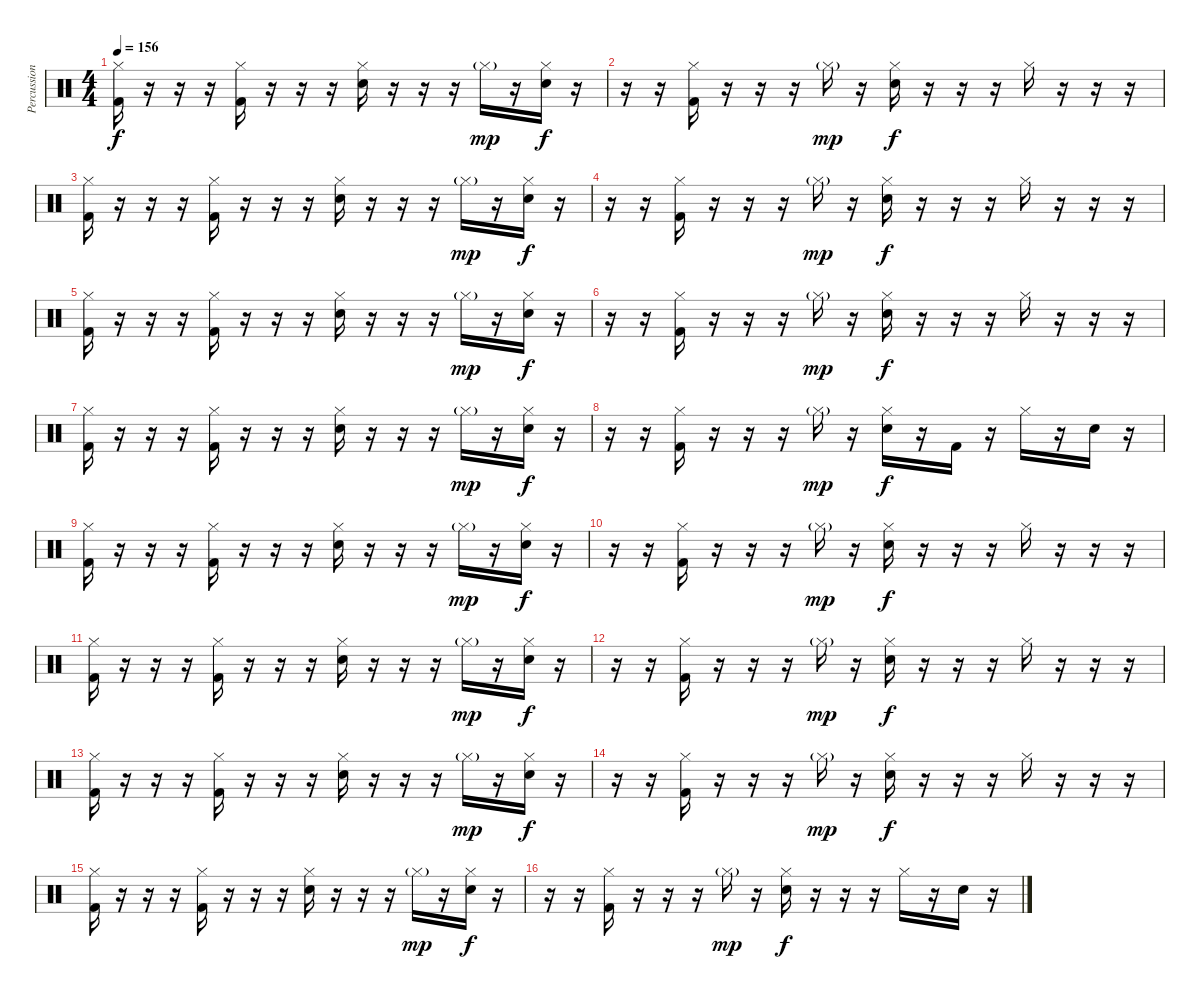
\track ("Percussion" "Percussion") {instrument percussion}
\staff {score}
\articulation defaults
\ts (4 4)
\tempo 156
\clef neutral
\ks c
("Hi-Hat (closed)" "Kick (hit) 2").16{dy f} r.16 r.16 r.16 ("Hi-Hat (closed)" "Kick (hit) 2").16 r.16 r.16 r.16 ("Hi-Hat (closed)" "Electric Snare (hit)").16 r.16 r.16 r.16 "Hi-Hat (closed)"{g}.16{dy mp} r.16 ("Hi-Hat (closed)" "Electric Snare (hit)").16{dy f} r.16 |
r.16 r.16 ("Hi-Hat (closed)" "Kick (hit) 2").16 r.16 r.16 r.16 "Hi-Hat (closed)"{g}.16{dy mp} r.16 ("Hi-Hat (closed)" "Electric Snare (hit)").16{dy f} r.16 r.16 r.16 "Hi-Hat (closed)".16 r.16 r.16 r.16 |
("Hi-Hat (closed)" "Kick (hit) 2").16 r.16 r.16 r.16 ("Hi-Hat (closed)" "Kick (hit) 2").16 r.16 r.16 r.16 ("Hi-Hat (closed)" "Electric Snare (hit)").16 r.16 r.16 r.16 "Hi-Hat (closed)"{g}.16{dy mp} r.16 ("Hi-Hat (closed)" "Electric Snare (hit)").16{dy f} r.16 |
r.16 r.16 ("Hi-Hat (closed)" "Kick (hit) 2").16 r.16 r.16 r.16 "Hi-Hat (closed)"{g}.16{dy mp} r.16 ("Hi-Hat (closed)" "Electric Snare (hit)").16{dy f} r.16 r.16 r.16 "Hi-Hat (closed)".16 r.16 r.16 r.16 |
("Hi-Hat (closed)" "Kick (hit) 2").16 r.16 r.16 r.16 ("Hi-Hat (closed)" "Kick (hit) 2").16 r.16 r.16 r.16 ("Hi-Hat (closed)" "Electric Snare (hit)").16 r.16 r.16 r.16 "Hi-Hat (closed)"{g}.16{dy mp} r.16 ("Hi-Hat (closed)" "Electric Snare (hit)").16{dy f} r.16 |
r.16 r.16 ("Hi-Hat (closed)" "Kick (hit) 2").16 r.16 r.16 r.16 "Hi-Hat (closed)"{g}.16{dy mp} r.16 ("Hi-Hat (closed)" "Electric Snare (hit)").16{dy f} r.16 r.16 r.16 "Hi-Hat (closed)".16 r.16 r.16 r.16 |
("Hi-Hat (closed)" "Kick (hit) 2").16 r.16 r.16 r.16 ("Hi-Hat (closed)" "Kick (hit) 2").16 r.16 r.16 r.16 ("Hi-Hat (closed)" "Electric Snare (hit)").16 r.16 r.16 r.16 "Hi-Hat (closed)"{g}.16{dy mp} r.16 ("Hi-Hat (closed)" "Electric Snare (hit)").16{dy f} r.16 |
r.16 r.16 ("Hi-Hat (closed)" "Kick (hit) 2").16 r.16 r.16 r.16 "Hi-Hat (closed)"{g}.16{dy mp} r.16 ("Hi-Hat (closed)" "Electric Snare (hit)").16{dy f} r.16 "Kick (hit) 2".16 r.16 "Hi-Hat (closed)".16 r.16 "Electric Snare (hit)".16 r.16 |
("Hi-Hat (closed)" "Kick (hit) 2").16 r.16 r.16 r.16 ("Hi-Hat (closed)" "Kick (hit) 2").16 r.16 r.16 r.16 ("Hi-Hat (closed)" "Electric Snare (hit)").16 r.16 r.16 r.16 "Hi-Hat (closed)"{g}.16{dy mp} r.16 ("Hi-Hat (closed)" "Electric Snare (hit)").16{dy f} r.16 |
r.16 r.16 ("Hi-Hat (closed)" "Kick (hit) 2").16 r.16 r.16 r.16 "Hi-Hat (closed)"{g}.16{dy mp} r.16 ("Hi-Hat (closed)" "Electric Snare (hit)").16{dy f} r.16 r.16 r.16 "Hi-Hat (closed)".16 r.16 r.16 r.16 |
("Hi-Hat (closed)" "Kick (hit) 2").16 r.16 r.16 r.16 ("Hi-Hat (closed)" "Kick (hit) 2").16 r.16 r.16 r.16 ("Hi-Hat (closed)" "Electric Snare (hit)").16 r.16 r.16 r.16 "Hi-Hat (closed)"{g}.16{dy mp} r.16 ("Hi-Hat (closed)" "Electric Snare (hit)").16{dy f} r.16 |
r.16 r.16 ("Hi-Hat (closed)" "Kick (hit) 2").16 r.16 r.16 r.16 "Hi-Hat (closed)"{g}.16{dy mp} r.16 ("Hi-Hat (closed)" "Electric Snare (hit)").16{dy f} r.16 r.16 r.16 "Hi-Hat (closed)".16 r.16 r.16 r.16 |
("Hi-Hat (closed)" "Kick (hit) 2").16 r.16 r.16 r.16 ("Hi-Hat (closed)" "Kick (hit) 2").16 r.16 r.16 r.16 ("Hi-Hat (closed)" "Electric Snare (hit)").16 r.16 r.16 r.16 "Hi-Hat (closed)"{g}.16{dy mp} r.16 ("Hi-Hat (closed)" "Electric Snare (hit)").16{dy f} r.16 |
r.16 r.16 ("Hi-Hat (closed)" "Kick (hit) 2").16 r.16 r.16 r.16 "Hi-Hat (closed)"{g}.16{dy mp} r.16 ("Hi-Hat (closed)" "Electric Snare (hit)").16{dy f} r.16 r.16 r.16 "Hi-Hat (closed)".16 r.16 r.16 r.16 |
("Hi-Hat (closed)" "Kick (hit) 2").16 r.16 r.16 r.16 ("Hi-Hat (closed)" "Kick (hit) 2").16 r.16 r.16 r.16 ("Hi-Hat (closed)" "Electric Snare (hit)").16 r.16 r.16 r.16 "Hi-Hat (closed)"{g}.16{dy mp} r.16 ("Hi-Hat (closed)" "Electric Snare (hit)").16{dy f} r.16 |
r.16 r.16 ("Hi-Hat (closed)" "Kick (hit) 2").16 r.16 r.16 r.16 "Hi-Hat (closed)"{g}.16{dy mp} r.16 ("Hi-Hat (closed)" "Electric Snare (hit)").16{dy f} r.16 r.16 r.16 "Hi-Hat (closed)".16 r.16 "Electric Snare (hit)".16 r.16
